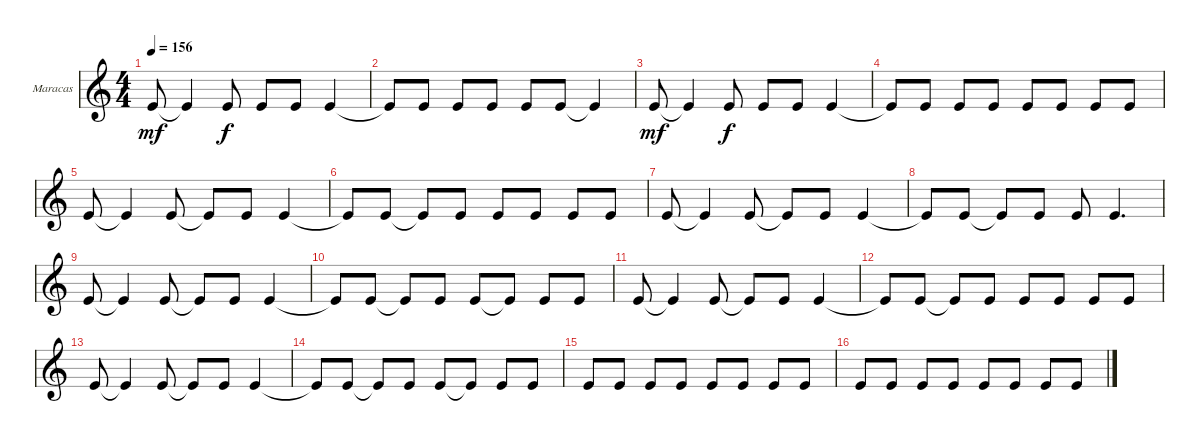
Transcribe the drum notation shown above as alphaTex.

\defaultSystemsLayout 4
\bracketExtendMode groupsimilarinstruments
\firstSystemTrackNameOrientation horizontal
\otherSystemsTrackNameOrientation horizontal
\track ("Maracas" "Maracas") {instrument percussion}
\staff {score}
\articulation defaults
\ts (4 4)
\tempo 156
\clef g2
\scale
0.333333
\ks c "Kick (hit)".8{dy mf} "Kick (hit)"{t}.4 "Kick (hit)".8{dy f} "Kick (hit)".8 "Kick (hit)".8 "Kick (hit)".4
|
\scale
0.333333 "Kick (hit)"{t}.8 "Kick (hit)".8 "Kick (hit)".8 "Kick (hit)".8 "Kick (hit)".8 "Kick (hit)".8 "Kick (hit)"{t}.4 |
\scale
0.333333 "Kick (hit)".8{dy mf} "Kick (hit)"{t}.4 "Kick (hit)".8{dy f} "Kick (hit)".8 "Kick (hit)".8 "Kick (hit)".4 |
\scale
0.333333 "Kick (hit)"{t}.8 "Kick (hit)".8 "Kick (hit)".8 "Kick (hit)".8 "Kick (hit)".8 "Kick (hit)".8 "Kick (hit)".8 "Kick (hit)".8 |
\scale
0.333333 "Kick (hit)".8 "Kick (hit)"{t}.4 "Kick (hit)".8 "Kick (hit)"{t}.8 "Kick (hit)".8 "Kick (hit)".4 |
\scale
0.333333 "Kick (hit)"{t}.8 "Kick (hit)".8 "Kick (hit)"{t}.8 "Kick (hit)".8 "Kick (hit)".8 "Kick (hit)".8 "Kick (hit)".8 "Kick (hit)".8 |
\scale
0.333333 "Kick (hit)".8 "Kick (hit)"{t}.4 "Kick (hit)".8 "Kick (hit)"{t}.8 "Kick (hit)".8 "Kick (hit)".4 |
\scale
0.333333 "Kick (hit)"{t}.8 "Kick (hit)".8 "Kick (hit)"{t}.8 "Kick (hit)".8 "Kick (hit)".8 "Kick (hit)".4{d} |
\scale
0.333333 "Kick (hit)".8 "Kick (hit)"{t}.4 "Kick (hit)".8 "Kick (hit)"{t}.8 "Kick (hit)".8 "Kick (hit)".4 |
\scale
0.333333 "Kick (hit)"{t}.8 "Kick (hit)".8 "Kick (hit)"{t}.8 "Kick (hit)".8 "Kick (hit)".8 "Kick (hit)"{t}.8 "Kick (hit)".8 "Kick (hit)".8 |
\scale
0.333333 "Kick (hit)".8 "Kick (hit)"{t}.4 "Kick (hit)".8 "Kick (hit)"{t}.8 "Kick (hit)".8 "Kick (hit)".4 |
\scale
0.333333 "Kick (hit)"{t}.8 "Kick (hit)".8 "Kick (hit)"{t}.8 "Kick (hit)".8 "Kick (hit)".8 "Kick (hit)".8 "Kick (hit)".8 "Kick (hit)".8 |
\scale
0.333333 "Kick (hit)".8 "Kick (hit)"{t}.4 "Kick (hit)".8 "Kick (hit)"{t}.8 "Kick (hit)".8 "Kick (hit)".4 |
\scale
0.333333 "Kick (hit)"{t}.8 "Kick (hit)".8 "Kick (hit)"{t}.8 "Kick (hit)".8 "Kick (hit)".8 "Kick (hit)"{t}.8 "Kick (hit)".8 "Kick (hit)".8 |
\scale
0.333333 "Kick (hit)".8 "Kick (hit)".8 "Kick (hit)".8 "Kick (hit)".8 "Kick (hit)".8 "Kick (hit)".8 "Kick (hit)".8 "Kick (hit)".8 |
\scale
0.333333 "Kick (hit)".8 "Kick (hit)".8 "Kick (hit)".8 "Kick (hit)".8 "Kick (hit)".8 "Kick (hit)".8 "Kick (hit)".8 "Kick (hit)".8
